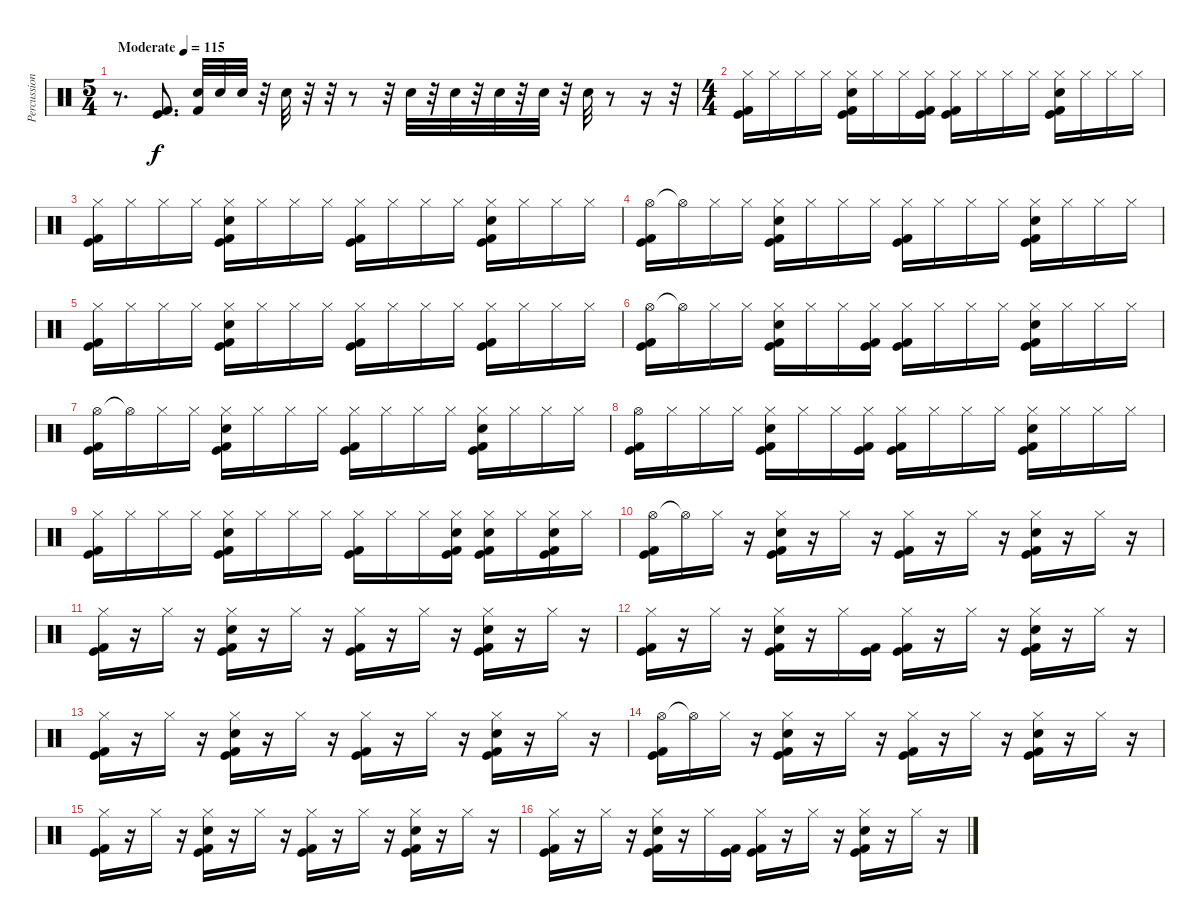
\track ("Percussions" "Percussion") {instrument percussion}
\staff {score}
\articulation defaults
\ts (5 4)
\tempo (115 "Moderate")
\clef neutral
\ks c
r.8{d dy f} ("Kick (hit)" "Kick (hit) 2").8{d} ("Snare (hit) 2" "Kick (hit) 2").32 "Snare (hit) 2".32 "Snare (hit) 2".32 r.32 "Snare (hit) 2".32 r.32 r.32 r.8 r.32 "Snare (hit) 2".32 r.32 "Snare (hit) 2".32 r.32 "Snare (hit) 2".32 r.32 "Snare (hit) 2".32 r.32 "Snare (hit) 2".32 r.8 r.16 r.32 |
\ts (4 4)
("Hi-Hat (closed)" "Kick (hit) 2" "Kick (hit)").16 "Hi-Hat (closed)".16 "Hi-Hat (closed)".16 "Hi-Hat (closed)".16 ("Hi-Hat (closed)" "Kick (hit) 2" "Snare (hit) 2" "Kick (hit)").16 "Hi-Hat (closed)".16 "Hi-Hat (closed)".16 ("Hi-Hat (closed)" "Kick (hit) 2" "Kick (hit)").16 ("Hi-Hat (closed)" "Kick (hit) 2" "Kick (hit)").16 "Hi-Hat (closed)".16 "Hi-Hat (closed)".16 "Hi-Hat (closed)".16 ("Hi-Hat (closed)" "Kick (hit) 2" "Snare (hit) 2" "Kick (hit)").16 "Hi-Hat (closed)".16 "Hi-Hat (closed)".16 "Hi-Hat (closed)".16 |
("Hi-Hat (closed)" "Kick (hit) 2" "Kick (hit)").16 "Hi-Hat (closed)".16 "Hi-Hat (closed)".16 "Hi-Hat (closed)".16 ("Hi-Hat (closed)" "Kick (hit) 2" "Snare (hit) 2" "Kick (hit)").16 "Hi-Hat (closed)".16 "Hi-Hat (closed)".16 "Hi-Hat (closed)".16 ("Hi-Hat (closed)" "Kick (hit) 2" "Kick (hit)").16 "Hi-Hat (closed)".16 "Hi-Hat (closed)".16 "Hi-Hat (closed)".16 ("Hi-Hat (closed)" "Kick (hit) 2" "Snare (hit) 2" "Kick (hit)").16 "Hi-Hat (closed)".16 "Hi-Hat (closed)".16 "Hi-Hat (closed)".16 |
("Hi-Hat (open)" "Kick (hit) 2" "Kick (hit)").16 "Hi-Hat (open)"{t}.16 "Hi-Hat (closed)".16 "Hi-Hat (closed)".16 ("Hi-Hat (closed)" "Kick (hit) 2" "Snare (hit) 2" "Kick (hit)").16 "Hi-Hat (closed)".16 "Hi-Hat (closed)".16 "Hi-Hat (closed)".16 ("Hi-Hat (closed)" "Kick (hit) 2" "Kick (hit)").16 "Hi-Hat (closed)".16 "Hi-Hat (closed)".16 "Hi-Hat (closed)".16 ("Hi-Hat (closed)" "Kick (hit) 2" "Snare (hit) 2" "Kick (hit)").16 "Hi-Hat (closed)".16 "Hi-Hat (closed)".16 "Hi-Hat (closed)".16 |
("Hi-Hat (closed)" "Kick (hit) 2" "Kick (hit)").16 "Hi-Hat (closed)".16 "Hi-Hat (closed)".16 "Hi-Hat (closed)".16 ("Hi-Hat (closed)" "Kick (hit) 2" "Snare (hit) 2" "Kick (hit)").16 "Hi-Hat (closed)".16 "Hi-Hat (closed)".16 "Hi-Hat (closed)".16 ("Hi-Hat (closed)" "Kick (hit) 2" "Kick (hit)").16 "Hi-Hat (closed)".16 "Hi-Hat (closed)".16 "Hi-Hat (closed)".16 ("Hi-Hat (closed)" "Kick (hit) 2" "Kick (hit)").16 "Hi-Hat (closed)".16 "Hi-Hat (closed)".16 "Hi-Hat (closed)".16 |
("Hi-Hat (open)" "Kick (hit) 2" "Kick (hit)").16 "Hi-Hat (open)"{t}.16 "Hi-Hat (closed)".16 "Hi-Hat (closed)".16 ("Hi-Hat (closed)" "Kick (hit) 2" "Snare (hit) 2" "Kick (hit)").16 "Hi-Hat (closed)".16 "Hi-Hat (closed)".16 ("Hi-Hat (closed)" "Kick (hit) 2" "Kick (hit)").16 ("Hi-Hat (closed)" "Kick (hit) 2" "Kick (hit)").16 "Hi-Hat (closed)".16 "Hi-Hat (closed)".16 "Hi-Hat (closed)".16 ("Hi-Hat (closed)" "Kick (hit) 2" "Snare (hit) 2" "Kick (hit)").16 "Hi-Hat (closed)".16 "Hi-Hat (closed)".16 "Hi-Hat (closed)".16 |
("Hi-Hat (open)" "Kick (hit) 2" "Kick (hit)").16 "Hi-Hat (open)"{t}.16 "Hi-Hat (closed)".16 "Hi-Hat (closed)".16 ("Hi-Hat (closed)" "Kick (hit) 2" "Snare (hit) 2" "Kick (hit)").16 "Hi-Hat (closed)".16 "Hi-Hat (closed)".16 "Hi-Hat (closed)".16 ("Hi-Hat (closed)" "Kick (hit) 2" "Kick (hit)").16 "Hi-Hat (closed)".16 "Hi-Hat (closed)".16 "Hi-Hat (closed)".16 ("Hi-Hat (closed)" "Snare (hit) 2" "Kick (hit) 2" "Kick (hit)").16 "Hi-Hat (closed)".16 "Hi-Hat (closed)".16 "Hi-Hat (closed)".16 |
("Hi-Hat (open)" "Kick (hit) 2" "Kick (hit)").16 "Hi-Hat (closed)".16 "Hi-Hat (closed)".16 "Hi-Hat (closed)".16 ("Hi-Hat (closed)" "Kick (hit) 2" "Snare (hit) 2" "Kick (hit)").16 "Hi-Hat (closed)".16 "Hi-Hat (closed)".16 ("Hi-Hat (closed)" "Kick (hit) 2" "Kick (hit)").16 ("Hi-Hat (closed)" "Kick (hit) 2" "Kick (hit)").16 "Hi-Hat (closed)".16 "Hi-Hat (closed)".16 "Hi-Hat (closed)".16 ("Hi-Hat (closed)" "Kick (hit) 2" "Snare (hit) 2" "Kick (hit)").16 "Hi-Hat (closed)".16 "Hi-Hat (closed)".16 "Hi-Hat (closed)".16 |
("Hi-Hat (closed)" "Kick (hit) 2" "Kick (hit)").16 "Hi-Hat (closed)".16 "Hi-Hat (closed)".16 "Hi-Hat (closed)".16 ("Hi-Hat (closed)" "Kick (hit) 2" "Snare (hit) 2" "Kick (hit)").16 "Hi-Hat (closed)".16 "Hi-Hat (closed)".16 "Hi-Hat (closed)".16 ("Hi-Hat (closed)" "Kick (hit) 2" "Kick (hit)").16 "Hi-Hat (closed)".16 "Hi-Hat (closed)".16 ("Hi-Hat (closed)" "Snare (hit) 2" "Kick (hit)" "Kick (hit) 2").16 ("Hi-Hat (closed)" "Snare (hit) 2" "Kick (hit)" "Kick (hit) 2").16 "Hi-Hat (closed)".16 ("Hi-Hat (closed)" "Snare (hit) 2" "Kick (hit)" "Kick (hit) 2").16 "Hi-Hat (closed)".16 |
("Hi-Hat (open)" "Kick (hit) 2" "Kick (hit)").16 "Hi-Hat (open)"{t}.16 "Hi-Hat (closed)".16 r.16 ("Hi-Hat (closed)" "Kick (hit) 2" "Snare (hit) 2" "Kick (hit)").16 r.16 "Hi-Hat (closed)".16 r.16 ("Hi-Hat (closed)" "Kick (hit) 2" "Kick (hit)").16 r.16 "Hi-Hat (closed)".16 r.16 ("Hi-Hat (closed)" "Kick (hit) 2" "Snare (hit) 2" "Kick (hit)").16 r.16 "Hi-Hat (closed)".16 r.16 |
("Hi-Hat (closed)" "Kick (hit) 2" "Kick (hit)").16 r.16 "Hi-Hat (closed)".16 r.16 ("Hi-Hat (closed)" "Kick (hit) 2" "Snare (hit) 2" "Kick (hit)").16 r.16 "Hi-Hat (closed)".16 r.16 ("Hi-Hat (closed)" "Kick (hit) 2" "Kick (hit)").16 r.16 "Hi-Hat (closed)".16 r.16 ("Hi-Hat (closed)" "Kick (hit) 2" "Snare (hit) 2" "Kick (hit)").16 r.16 "Hi-Hat (closed)".16 r.16 |
("Hi-Hat (closed)" "Kick (hit) 2" "Kick (hit)").16 r.16 "Hi-Hat (closed)".16 r.16 ("Hi-Hat (closed)" "Kick (hit) 2" "Snare (hit) 2" "Kick (hit)").16 r.16 "Hi-Hat (closed)".16 ("Kick (hit) 2" "Kick (hit)").16 ("Hi-Hat (closed)" "Kick (hit) 2" "Kick (hit)").16 r.16 "Hi-Hat (closed)".16 r.16 ("Hi-Hat (closed)" "Kick (hit) 2" "Snare (hit) 2" "Kick (hit)").16 r.16 "Hi-Hat (closed)".16 r.16 |
("Hi-Hat (closed)" "Kick (hit) 2" "Kick (hit)").16 r.16 "Hi-Hat (closed)".16 r.16 ("Hi-Hat (closed)" "Kick (hit) 2" "Snare (hit) 2" "Kick (hit)").16 r.16 "Hi-Hat (closed)".16 r.16 ("Hi-Hat (closed)" "Kick (hit) 2" "Kick (hit)").16 r.16 "Hi-Hat (closed)".16 r.16 ("Hi-Hat (closed)" "Kick (hit) 2" "Snare (hit) 2" "Kick (hit)").16 r.16 "Hi-Hat (closed)".16 r.16 |
("Hi-Hat (open)" "Kick (hit) 2" "Kick (hit)").16 "Hi-Hat (open)"{t}.16 "Hi-Hat (closed)".16 r.16 ("Hi-Hat (closed)" "Kick (hit) 2" "Snare (hit) 2" "Kick (hit)").16 r.16 "Hi-Hat (closed)".16 r.16 ("Hi-Hat (closed)" "Kick (hit) 2" "Kick (hit)").16 r.16 "Hi-Hat (closed)".16 r.16 ("Hi-Hat (closed)" "Kick (hit) 2" "Snare (hit) 2" "Kick (hit)").16 r.16 "Hi-Hat (closed)".16 r.16 |
("Hi-Hat (closed)" "Kick (hit) 2" "Kick (hit)").16 r.16 "Hi-Hat (closed)".16 r.16 ("Hi-Hat (closed)" "Kick (hit) 2" "Snare (hit) 2" "Kick (hit)").16 r.16 "Hi-Hat (closed)".16 r.16 ("Hi-Hat (closed)" "Kick (hit) 2" "Kick (hit)").16 r.16 "Hi-Hat (closed)".16 r.16 ("Hi-Hat (closed)" "Kick (hit) 2" "Snare (hit) 2" "Kick (hit)").16 r.16 "Hi-Hat (closed)".16 r.16 |
("Hi-Hat (closed)" "Kick (hit) 2" "Kick (hit)").16 r.16 "Hi-Hat (closed)".16 r.16 ("Hi-Hat (closed)" "Kick (hit) 2" "Snare (hit) 2" "Kick (hit)").16 r.16 "Hi-Hat (closed)".16 ("Kick (hit) 2" "Kick (hit)").16 ("Hi-Hat (closed)" "Kick (hit) 2" "Kick (hit)").16 r.16 "Hi-Hat (closed)".16 r.16 ("Hi-Hat (closed)" "Kick (hit) 2" "Snare (hit) 2" "Kick (hit)").16 r.16 "Hi-Hat (closed)".16 r.16
